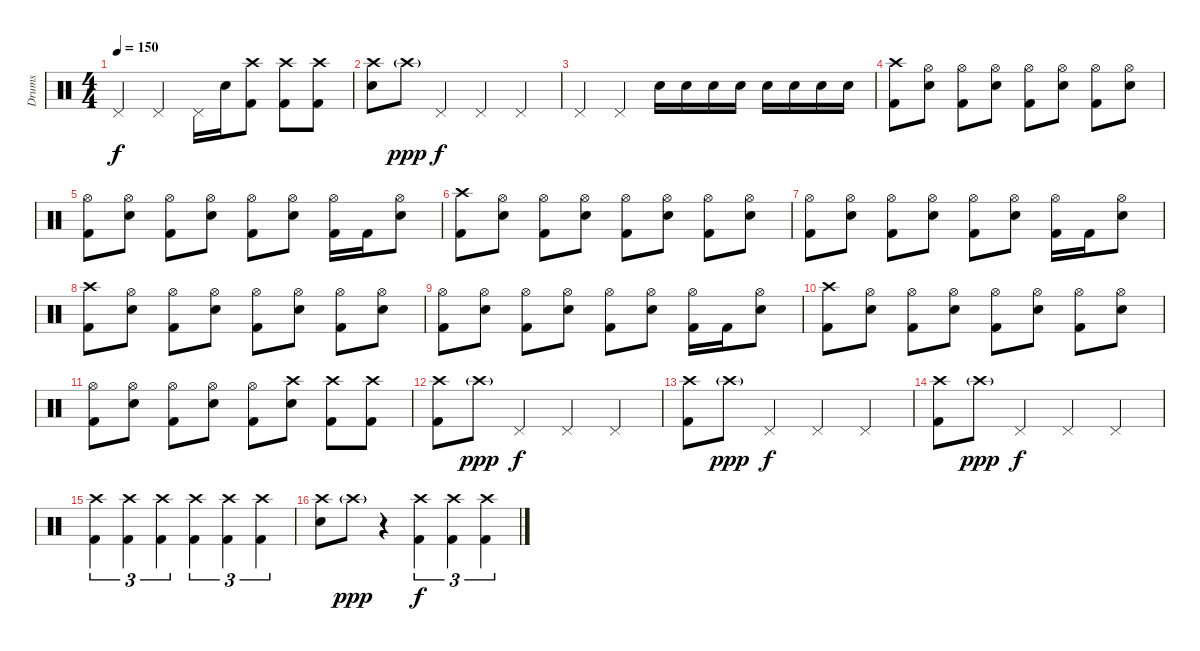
\track ("Drums" "Drums") {instrument percussion}
\staff {score}
\articulation defaults
\ts (4 4)
\tempo 150
\clef neutral
\ks c "Pedal Hi-Hat (hit)".4{dy f} "Pedal Hi-Hat (hit)".4 "Pedal Hi-Hat (hit)".16 "Electric Snare (hit)".16
("Crash high (hit)" "Kick (hit) 2").8 ("Crash high (hit)" "Kick (hit) 2").8 ("Crash high (hit)" "Kick (hit) 2").8 |
("Crash high (hit)" "Electric Snare (hit)").8 "Crash high (hit)"{g}.8{dy ppp} "Pedal Hi-Hat (hit)".4{dy f} "Pedal Hi-Hat (hit)".4 "Pedal Hi-Hat (hit)".4 |
"Pedal Hi-Hat (hit)".4 "Pedal Hi-Hat (hit)".4 "Electric Snare (hit)".16 "Electric Snare (hit)".16 "Electric Snare (hit)".16 "Electric Snare (hit)".16 "Electric Snare (hit)".16 "Electric Snare (hit)".16 "Electric Snare (hit)".16 "Electric Snare (hit)".16 |
("Crash high (hit)" "Kick (hit) 2").8 ("Hi-Hat (open)" "Electric Snare (hit)").8 ("Hi-Hat (open)" "Kick (hit) 2").8 ("Hi-Hat (open)" "Electric Snare (hit)").8 ("Hi-Hat (open)" "Kick (hit) 2").8 ("Hi-Hat (open)" "Electric Snare (hit)").8 ("Hi-Hat (open)" "Kick (hit) 2").8 ("Hi-Hat (open)" "Electric Snare (hit)").8 |
("Hi-Hat (open)" "Kick (hit) 2").8 ("Hi-Hat (open)" "Electric Snare (hit)").8 ("Hi-Hat (open)" "Kick (hit) 2").8 ("Hi-Hat (open)" "Electric Snare (hit)").8 ("Hi-Hat (open)" "Kick (hit) 2").8 ("Hi-Hat (open)" "Electric Snare (hit)").8 ("Hi-Hat (open)" "Kick (hit) 2").16 "Kick (hit) 2".16 ("Hi-Hat (open)" "Electric Snare (hit)").8 |
("Crash high (hit)" "Kick (hit) 2").8 ("Hi-Hat (open)" "Electric Snare (hit)").8 ("Hi-Hat (open)" "Kick (hit) 2").8 ("Hi-Hat (open)" "Electric Snare (hit)").8 ("Hi-Hat (open)" "Kick (hit) 2").8 ("Hi-Hat (open)" "Electric Snare (hit)").8 ("Hi-Hat (open)" "Kick (hit) 2").8 ("Hi-Hat (open)" "Electric Snare (hit)").8 |
("Hi-Hat (open)" "Kick (hit) 2").8 ("Hi-Hat (open)" "Electric Snare (hit)").8 ("Hi-Hat (open)" "Kick (hit) 2").8 ("Hi-Hat (open)" "Electric Snare (hit)").8 ("Hi-Hat (open)" "Kick (hit) 2").8 ("Hi-Hat (open)" "Electric Snare (hit)").8 ("Hi-Hat (open)" "Kick (hit) 2").16 "Kick (hit) 2".16 ("Hi-Hat (open)" "Electric Snare (hit)").8 |
("Crash high (hit)" "Kick (hit) 2").8 ("Hi-Hat (open)" "Electric Snare (hit)").8 ("Hi-Hat (open)" "Kick (hit) 2").8 ("Hi-Hat (open)" "Electric Snare (hit)").8 ("Hi-Hat (open)" "Kick (hit) 2").8 ("Hi-Hat (open)" "Electric Snare (hit)").8 ("Hi-Hat (open)" "Kick (hit) 2").8 ("Hi-Hat (open)" "Electric Snare (hit)").8 |
("Hi-Hat (open)" "Kick (hit) 2").8 ("Hi-Hat (open)" "Electric Snare (hit)").8 ("Hi-Hat (open)" "Kick (hit) 2").8 ("Hi-Hat (open)" "Electric Snare (hit)").8 ("Hi-Hat (open)" "Kick (hit) 2").8 ("Hi-Hat (open)" "Electric Snare (hit)").8 ("Hi-Hat (open)" "Kick (hit) 2").16 "Kick (hit) 2".16 ("Hi-Hat (open)" "Electric Snare (hit)").8 |
("Crash high (hit)" "Kick (hit) 2").8 ("Hi-Hat (open)" "Electric Snare (hit)").8 ("Hi-Hat (open)" "Kick (hit) 2").8 ("Hi-Hat (open)" "Electric Snare (hit)").8 ("Hi-Hat (open)" "Kick (hit) 2").8 ("Hi-Hat (open)" "Electric Snare (hit)").8 ("Hi-Hat (open)" "Kick (hit) 2").8 ("Hi-Hat (open)" "Electric Snare (hit)").8 |
("Hi-Hat (open)" "Kick (hit) 2").8 ("Hi-Hat (open)" "Electric Snare (hit)").8 ("Hi-Hat (open)" "Kick (hit) 2").8 ("Hi-Hat (open)" "Electric Snare (hit)").8 ("Hi-Hat (open)" "Kick (hit) 2").8 ("Crash high (hit)" "Electric Snare (hit)").8 ("Crash high (hit)" "Kick (hit) 2").8 ("Crash high (hit)" "Kick (hit) 2").8 |
("Crash high (hit)" "Kick (hit) 2").8 "Crash high (hit)"{g}.8{dy ppp} "Pedal Hi-Hat (hit)".4{dy f} "Pedal Hi-Hat (hit)".4 "Pedal Hi-Hat (hit)".4 |
("Crash high (hit)" "Kick (hit) 2").8 "Crash high (hit)"{g}.8{dy ppp} "Pedal Hi-Hat (hit)".4{dy f} "Pedal Hi-Hat (hit)".4 "Pedal Hi-Hat (hit)".4 |
("Crash high (hit)" "Kick (hit) 2").8 "Crash high (hit)"{g}.8{dy ppp} "Pedal Hi-Hat (hit)".4{dy f} "Pedal Hi-Hat (hit)".4 "Pedal Hi-Hat (hit)".4 |
("Crash high (hit)" "Kick (hit) 2").4{tu (3 2)} ("Crash high (hit)" "Kick (hit) 2").4{tu (3 2)} ("Crash high (hit)" "Kick (hit) 2").4{tu (3 2)} ("Crash high (hit)" "Kick (hit) 2").4{tu (3 2)} ("Crash high (hit)" "Kick (hit) 2").4{tu (3 2)} ("Crash high (hit)" "Kick (hit) 2").4{tu (3 2)} |
("Crash high (hit)" "Electric Snare (hit)").8 "Crash high (hit)"{g}.8{dy ppp} r.4 ("Crash high (hit)" "Kick (hit) 2").4{tu (3 2) dy f} ("Crash high (hit)" "Kick (hit) 2").4{tu (3 2)} ("Crash high (hit)" "Kick (hit) 2").4{tu (3 2)}
